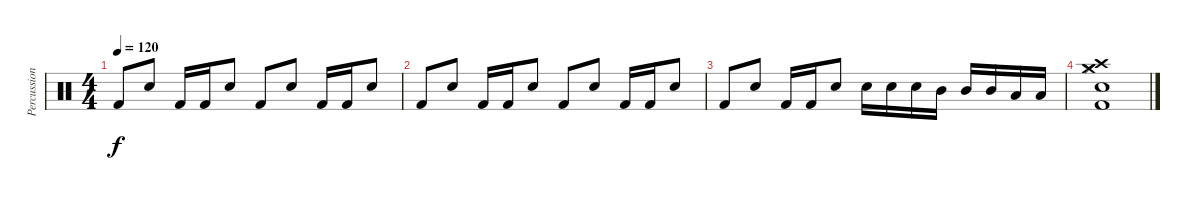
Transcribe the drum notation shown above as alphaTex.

\track ("Percussions" "Percussion") {instrument percussion}
\staff {score}
\articulation defaults
\ts (4 4)
\tempo 120
\clef neutral
\ks c "Kick (hit) 2".8{dy f} "Snare (hit) 2".8 "Kick (hit) 2".16 "Kick (hit) 2".16 "Snare (hit) 2".8 "Kick (hit) 2".8 "Snare (hit) 2".8 "Kick (hit) 2".16 "Kick (hit) 2".16 "Snare (hit) 2".8
|
"Kick (hit) 2".8 "Snare (hit) 2".8 "Kick (hit) 2".16 "Kick (hit) 2".16 "Snare (hit) 2".8 "Kick (hit) 2".8 "Snare (hit) 2".8 "Kick (hit) 2".16 "Kick (hit) 2".16 "Snare (hit) 2".8 |
"Kick (hit) 2".8 "Snare (hit) 2".8 "Kick (hit) 2".16 "Kick (hit) 2".16 "Snare (hit) 2".8 "Snare (hit) 2".16 "Snare (hit) 2".16 "Snare (hit) 2".16 "Mid Tom (hit)".16 "Mid Tom (hit)".16 "Mid Tom (hit)".16 "Low Tom (hit)".16 "Low Tom (hit)".16 |
("Hi-Hat (closed)" "Snare (hit) 2" "Kick (hit) 2" "Crash high (hit)" "Crash medium (hit)").1
